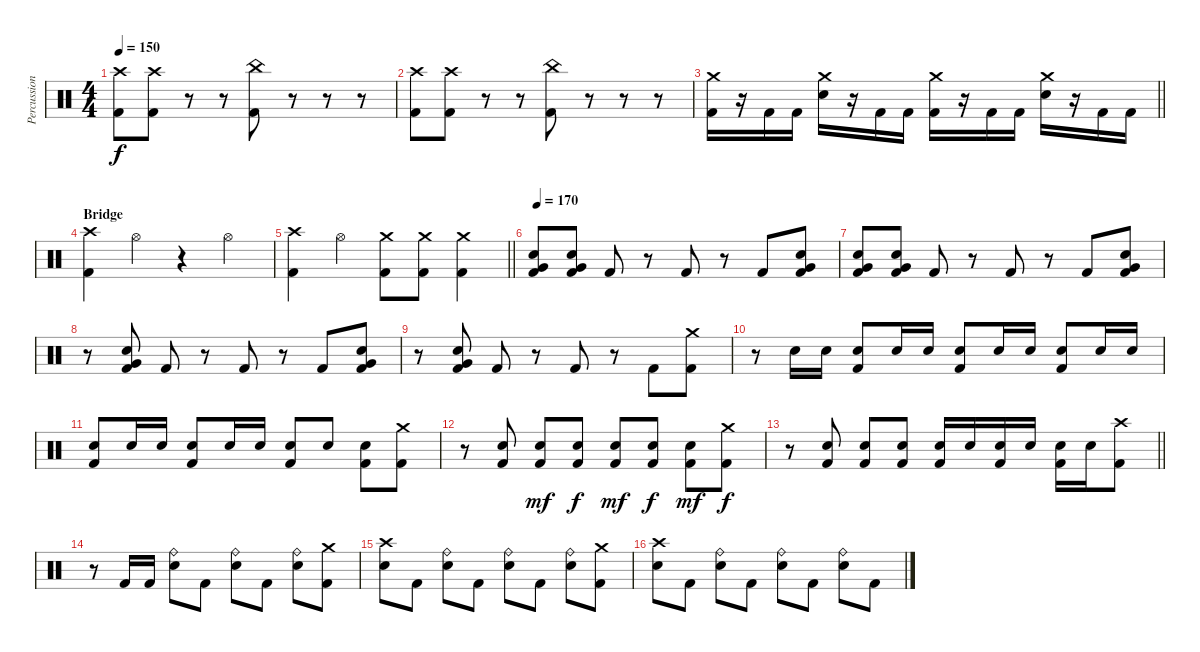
\track ("Percussion" "Percussion") {instrument percussion}
\staff {score}
\articulation defaults
\ts (4 4)
\tempo 150
\clef neutral
\ks c
("Crash high (hit)" "Kick (hit) 2").8{dy f} ("Crash high (hit)" "Kick (hit) 2").8 r.8 r.8 ("China (hit)" "Kick (hit) 2").8 r.8 r.8 r.8 |
("Crash high (hit)" "Kick (hit) 2").8 ("Crash high (hit)" "Kick (hit) 2").8 r.8 r.8 ("China (hit)" "Kick (hit) 2").8 r.8 r.8 r.8 |
\barLineRight lightlight
("Crash medium (hit)" "Kick (hit) 2").16 r.16 "Kick (hit) 2".16 "Kick (hit) 2".16 ("Crash medium (hit)" "Snare (hit) 2").16 r.16 "Kick (hit) 2".16 "Kick (hit) 2".16 ("Crash medium (hit)" "Kick (hit) 2").16 r.16 "Kick (hit) 2".16 "Kick (hit) 2".16 ("Crash medium (hit)" "Snare (hit) 2").16 r.16 "Kick (hit) 2".16 "Kick (hit) 2".16 |
\section ("" "Bridge")
("Crash high (hit)" "Kick (hit) 2").4 "Hi-Hat (open)".4 r.4 "Hi-Hat (open)".4 |
\barLineRight lightlight
("Crash high (hit)" "Kick (hit) 2").4 "Hi-Hat (open)".4 ("Crash medium (hit)" "Kick (hit) 2").8 ("Crash medium (hit)" "Kick (hit) 2").8 ("Crash medium (hit)" "Kick (hit) 2").4 |
\section ("" "")
\tempo 170
("Snare (hit) 2" "Very Low Tom (hit)" "Kick (hit) 2").8 ("Snare (hit) 2" "Very Low Tom (hit)" "Kick (hit) 2").8 "Kick (hit) 2".8 r.8 "Kick (hit) 2".8 r.8 "Kick (hit) 2".8 ("Snare (hit) 2" "Very Low Tom (hit)" "Kick (hit) 2").8 |
("Snare (hit) 2" "Very Low Tom (hit)" "Kick (hit) 2").8 ("Snare (hit) 2" "Very Low Tom (hit)" "Kick (hit) 2").8 "Kick (hit) 2".8 r.8 "Kick (hit) 2".8 r.8 "Kick (hit) 2".8 ("Snare (hit) 2" "Very Low Tom (hit)" "Kick (hit) 2").8 |
r.8 ("Snare (hit) 2" "Very Low Tom (hit)" "Kick (hit) 2").8 "Kick (hit) 2".8 r.8 "Kick (hit) 2".8 r.8 "Kick (hit) 2".8 ("Snare (hit) 2" "Very Low Tom (hit)" "Kick (hit) 2").8 |
r.8 ("Snare (hit) 2" "Very Low Tom (hit)" "Kick (hit) 2").8 "Kick (hit) 2".8 r.8 "Kick (hit) 2".8 r.8 "Kick (hit) 2".8 ("Crash medium (hit)" "Kick (hit) 2").8 |
r.8 "Snare (hit) 2".16 "Snare (hit) 2".16 ("Snare (hit) 2" "Kick (hit) 2").8 "Snare (hit) 2".16 "Snare (hit) 2".16 ("Snare (hit) 2" "Kick (hit) 2").8 "Snare (hit) 2".16 "Snare (hit) 2".16 ("Snare (hit) 2" "Kick (hit) 2").8 "Snare (hit) 2".16 "Snare (hit) 2".16 |
("Snare (hit) 2" "Kick (hit) 2").8 "Snare (hit) 2".16 "Snare (hit) 2".16 ("Snare (hit) 2" "Kick (hit) 2").8 "Snare (hit) 2".16 "Snare (hit) 2".16 ("Snare (hit) 2" "Kick (hit) 2").8 "Snare (hit) 2".8 ("Snare (hit) 2" "Kick (hit) 2").8 ("Crash medium (hit)" "Kick (hit) 2").8 |
r.8 ("Snare (hit) 2" "Kick (hit) 2").8 ("Snare (hit) 2" "Kick (hit) 2").8{dy mf} ("Snare (hit) 2" "Kick (hit) 2").8{dy f} ("Snare (hit) 2" "Kick (hit) 2").8{dy mf} ("Snare (hit) 2" "Kick (hit) 2").8{dy f} ("Snare (hit) 2" "Kick (hit) 2").8{dy mf} ("Crash medium (hit)" "Kick (hit) 2").8{dy f} |
\barLineRight lightlight
r.8 ("Snare (hit) 2" "Kick (hit) 2").8 ("Snare (hit) 2" "Kick (hit) 2").8 ("Snare (hit) 2" "Kick (hit) 2").8 ("Snare (hit) 2" "Kick (hit) 2").16 "Snare (hit) 2".16 ("Snare (hit) 2" "Kick (hit) 2").16 "Snare (hit) 2".16 ("Snare (hit) 2" "Kick (hit) 2").16 "Snare (hit) 2".16 ("Crash high (hit)" "Kick (hit) 2").8 |
\section ("" "")
r.8 "Kick (hit) 2".16 "Kick (hit) 2".16 ("Ride (bell)" "Snare (hit) 2").8 "Kick (hit) 2".8 ("Ride (bell)" "Snare (hit) 2").8 "Kick (hit) 2".8 ("Ride (bell)" "Snare (hit) 2").8 ("Crash medium (hit)" "Kick (hit) 2").8 |
("Crash high (hit)" "Snare (hit) 2").8 "Kick (hit) 2".8 ("Ride (bell)" "Snare (hit) 2").8 "Kick (hit) 2".8 ("Ride (bell)" "Snare (hit) 2").8 "Kick (hit) 2".8 ("Ride (bell)" "Snare (hit) 2").8 ("Crash medium (hit)" "Kick (hit) 2").8 |
("Crash high (hit)" "Snare (hit) 2").8 "Kick (hit) 2".8 ("Ride (bell)" "Snare (hit) 2").8 "Kick (hit) 2".8 ("Ride (bell)" "Snare (hit) 2").8 "Kick (hit) 2".8 ("Ride (bell)" "Snare (hit) 2").8 "Kick (hit) 2".8
